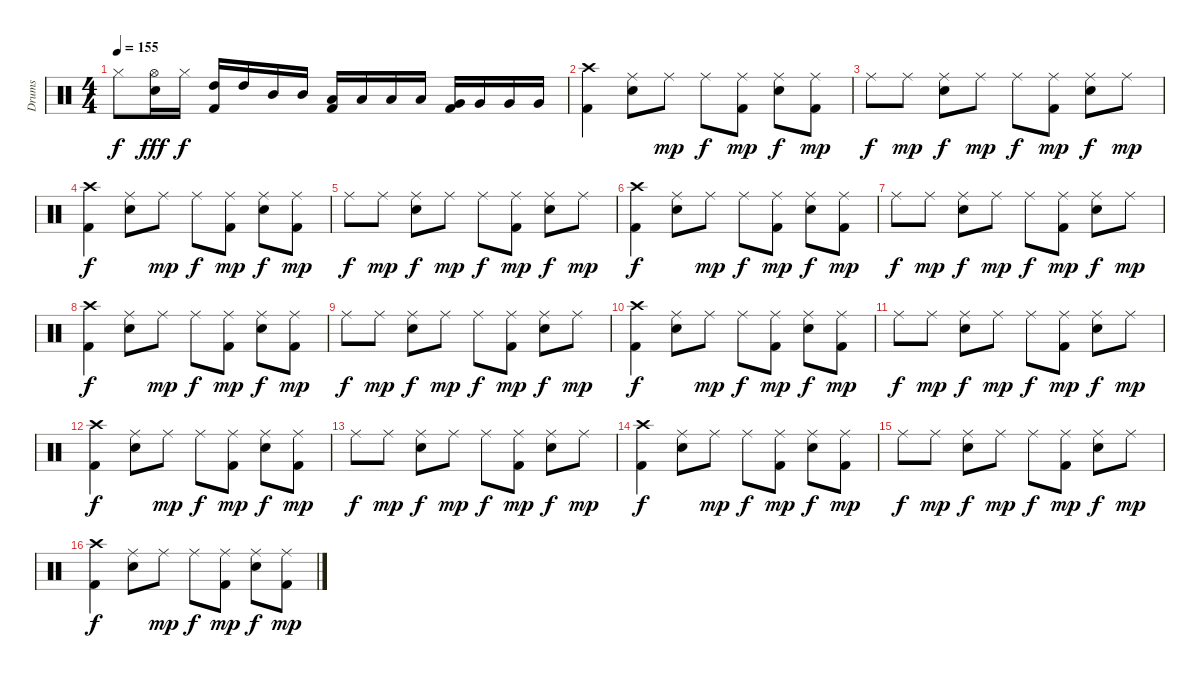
\track ("Drums" "Drums") {instrument percussion}
\staff {score}
\articulation defaults
\ts (4 4)
\tempo 155
\clef neutral
\ks c "Hi-Hat (closed)".8{dy f}
("Hi-Hat (open)" "Electric Snare (hit)").16{dy fff} "Hi-Hat (closed)".16{dy f} ("Kick (hit) 2" "High Tom (hit)").16 "High Tom (hit)".16 "Mid Tom (hit)".16 "Mid Tom (hit)".16 ("Low Tom (hit)" "Kick (hit) 2").16 "Low Tom (hit)".16 "Low Tom (hit)".16 "Low Tom (hit)".16 ("Kick (hit) 2" "Very Low Tom (hit)").16 "Very Low Tom (hit)".16 "Very Low Tom (hit)".16 "Very Low Tom (hit)".16 |
("Kick (hit) 2" "Crash high (hit)").4 ("Ride (middle)" "Electric Snare (hit)").8 "Ride (middle)".8{dy mp} "Ride (middle)".8{dy f} ("Kick (hit) 2" "Ride (middle)").8{dy mp} ("Electric Snare (hit)" "Ride (middle)").8{dy f} ("Kick (hit) 2" "Ride (middle)").8{dy mp} |
"Ride (middle)".8{dy f} "Ride (middle)".8{dy mp} ("Electric Snare (hit)" "Ride (middle)").8{dy f} "Ride (middle)".8{dy mp} "Ride (middle)".8{dy f} ("Kick (hit) 2" "Ride (middle)").8{dy mp} ("Electric Snare (hit)" "Ride (middle)").8{dy f} "Ride (middle)".8{dy mp} |
("Kick (hit) 2" "Crash high (hit)").4{dy f} ("Ride (middle)" "Electric Snare (hit)").8 "Ride (middle)".8{dy mp} "Ride (middle)".8{dy f} ("Kick (hit) 2" "Ride (middle)").8{dy mp} ("Electric Snare (hit)" "Ride (middle)").8{dy f} ("Kick (hit) 2" "Ride (middle)").8{dy mp} |
"Ride (middle)".8{dy f} "Ride (middle)".8{dy mp} ("Electric Snare (hit)" "Ride (middle)").8{dy f} "Ride (middle)".8{dy mp} "Ride (middle)".8{dy f} ("Kick (hit) 2" "Ride (middle)").8{dy mp} ("Electric Snare (hit)" "Ride (middle)").8{dy f} "Ride (middle)".8{dy mp} |
("Kick (hit) 2" "Crash high (hit)").4{dy f} ("Ride (middle)" "Electric Snare (hit)").8 "Ride (middle)".8{dy mp} "Ride (middle)".8{dy f} ("Kick (hit) 2" "Ride (middle)").8{dy mp} ("Electric Snare (hit)" "Ride (middle)").8{dy f} ("Kick (hit) 2" "Ride (middle)").8{dy mp} |
"Ride (middle)".8{dy f} "Ride (middle)".8{dy mp} ("Electric Snare (hit)" "Ride (middle)").8{dy f} "Ride (middle)".8{dy mp} "Ride (middle)".8{dy f} ("Kick (hit) 2" "Ride (middle)").8{dy mp} ("Electric Snare (hit)" "Ride (middle)").8{dy f} "Ride (middle)".8{dy mp} |
("Kick (hit) 2" "Crash high (hit)").4{dy f} ("Ride (middle)" "Electric Snare (hit)").8 "Ride (middle)".8{dy mp} "Ride (middle)".8{dy f} ("Kick (hit) 2" "Ride (middle)").8{dy mp} ("Electric Snare (hit)" "Ride (middle)").8{dy f} ("Kick (hit) 2" "Ride (middle)").8{dy mp} |
"Ride (middle)".8{dy f} "Ride (middle)".8{dy mp} ("Electric Snare (hit)" "Ride (middle)").8{dy f} "Ride (middle)".8{dy mp} "Ride (middle)".8{dy f} ("Kick (hit) 2" "Ride (middle)").8{dy mp} ("Electric Snare (hit)" "Ride (middle)").8{dy f} "Ride (middle)".8{dy mp} |
("Kick (hit) 2" "Crash high (hit)").4{dy f} ("Ride (middle)" "Electric Snare (hit)").8 "Ride (middle)".8{dy mp} "Ride (middle)".8{dy f} ("Kick (hit) 2" "Ride (middle)").8{dy mp} ("Electric Snare (hit)" "Ride (middle)").8{dy f} ("Kick (hit) 2" "Ride (middle)").8{dy mp} |
"Ride (middle)".8{dy f} "Ride (middle)".8{dy mp} ("Electric Snare (hit)" "Ride (middle)").8{dy f} "Ride (middle)".8{dy mp} "Ride (middle)".8{dy f} ("Kick (hit) 2" "Ride (middle)").8{dy mp} ("Electric Snare (hit)" "Ride (middle)").8{dy f} "Ride (middle)".8{dy mp} |
("Kick (hit) 2" "Crash high (hit)").4{dy f} ("Ride (middle)" "Electric Snare (hit)").8 "Ride (middle)".8{dy mp} "Ride (middle)".8{dy f} ("Kick (hit) 2" "Ride (middle)").8{dy mp} ("Electric Snare (hit)" "Ride (middle)").8{dy f} ("Kick (hit) 2" "Ride (middle)").8{dy mp} |
"Ride (middle)".8{dy f} "Ride (middle)".8{dy mp} ("Electric Snare (hit)" "Ride (middle)").8{dy f} "Ride (middle)".8{dy mp} "Ride (middle)".8{dy f} ("Kick (hit) 2" "Ride (middle)").8{dy mp} ("Electric Snare (hit)" "Ride (middle)").8{dy f} "Ride (middle)".8{dy mp} |
("Kick (hit) 2" "Crash high (hit)").4{dy f} ("Ride (middle)" "Electric Snare (hit)").8 "Ride (middle)".8{dy mp} "Ride (middle)".8{dy f} ("Kick (hit) 2" "Ride (middle)").8{dy mp} ("Electric Snare (hit)" "Ride (middle)").8{dy f} ("Kick (hit) 2" "Ride (middle)").8{dy mp} |
"Ride (middle)".8{dy f} "Ride (middle)".8{dy mp} ("Electric Snare (hit)" "Ride (middle)").8{dy f} "Ride (middle)".8{dy mp} "Ride (middle)".8{dy f} ("Kick (hit) 2" "Ride (middle)").8{dy mp} ("Electric Snare (hit)" "Ride (middle)").8{dy f} "Ride (middle)".8{dy mp} |
("Kick (hit) 2" "Crash high (hit)").4{dy f} ("Ride (middle)" "Electric Snare (hit)").8 "Ride (middle)".8{dy mp} "Ride (middle)".8{dy f} ("Kick (hit) 2" "Ride (middle)").8{dy mp} ("Electric Snare (hit)" "Ride (middle)").8{dy f} ("Kick (hit) 2" "Ride (middle)").8{dy mp}
